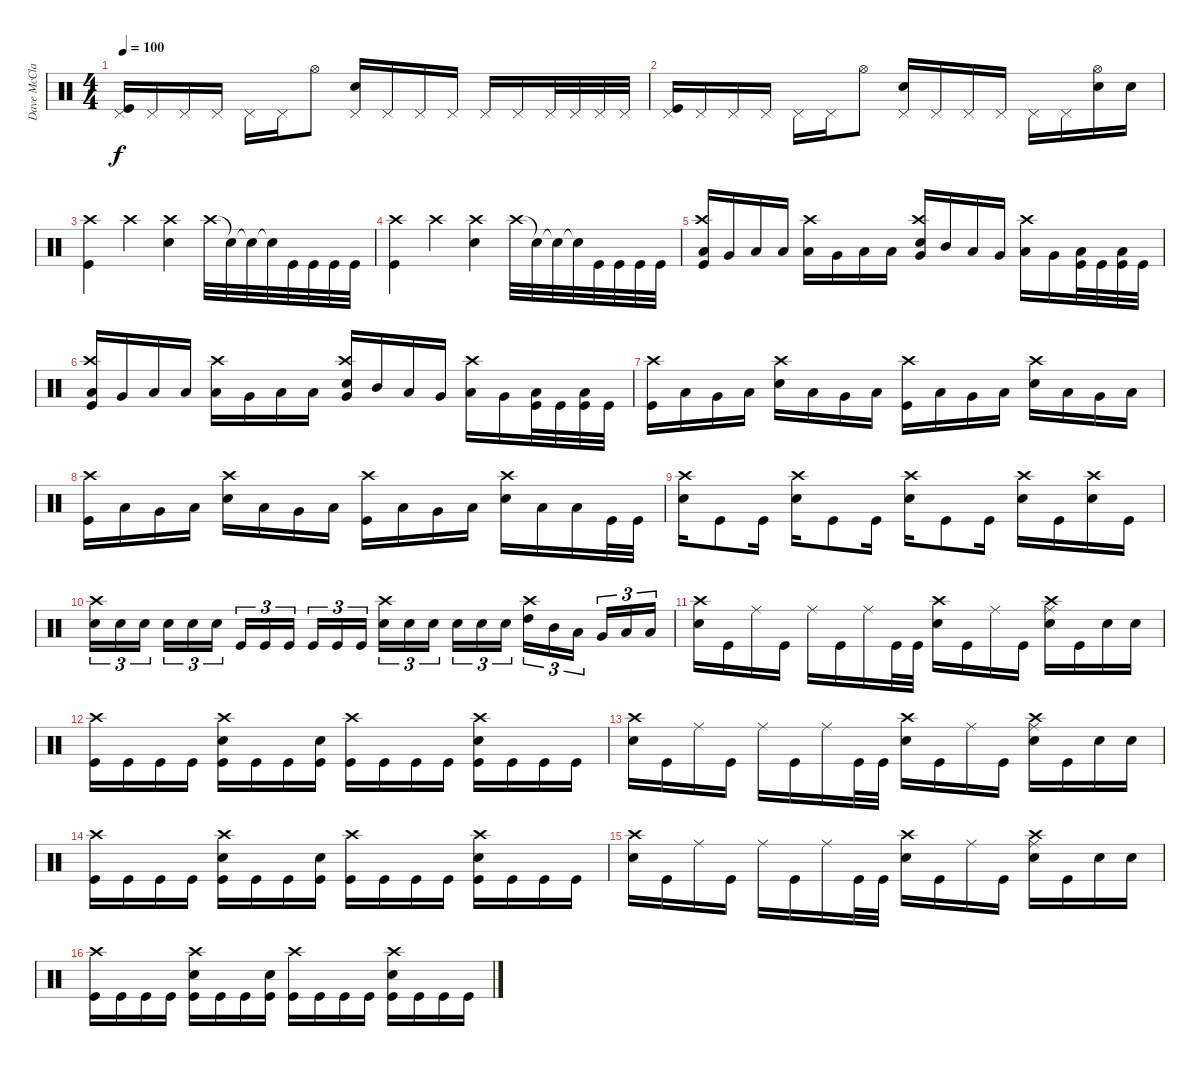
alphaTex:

\track ("Dave McClain" "Dave McCla") {instrument percussion}
\staff {score}
\articulation defaults
\ts (4 4)
\tempo 100
\clef neutral
\ks c
("Pedal Hi-Hat (hit)" "Kick (hit)").16{dy f} "Pedal Hi-Hat (hit)".16 "Pedal Hi-Hat (hit)".16 "Pedal Hi-Hat (hit)".16 "Pedal Hi-Hat (hit)".16 "Pedal Hi-Hat (hit)".16 "Hi-Hat (open)".8 ("Pedal Hi-Hat (hit)" "Snare (hit) 2").16 "Pedal Hi-Hat (hit)".16 "Pedal Hi-Hat (hit)".16 "Pedal Hi-Hat (hit)".16 "Pedal Hi-Hat (hit)".16 "Pedal Hi-Hat (hit)".16 "Pedal Hi-Hat (hit)".32 "Pedal Hi-Hat (hit)".32 "Pedal Hi-Hat (hit)".32 "Pedal Hi-Hat (hit)".32 |
("Pedal Hi-Hat (hit)" "Kick (hit)").16 "Pedal Hi-Hat (hit)".16 "Pedal Hi-Hat (hit)".16 "Pedal Hi-Hat (hit)".16 "Pedal Hi-Hat (hit)".16 "Pedal Hi-Hat (hit)".16 "Hi-Hat (open)".8 ("Pedal Hi-Hat (hit)" "Snare (hit) 2").16 "Pedal Hi-Hat (hit)".16 "Pedal Hi-Hat (hit)".16 "Pedal Hi-Hat (hit)".16 "Pedal Hi-Hat (hit)".16 "Pedal Hi-Hat (hit)".16 ("Hi-Hat (open)" "Snare (hit) 2").16 "Snare (hit) 2".16 |
("Crash high (hit)" "Kick (hit)").4 "Crash high (hit)".4 ("Crash high (hit)" "Snare (hit) 2").4 "Crash high (hit)".32 "Snare (hit)"{t}.32 "Snare (hit)"{t}.32 "Snare (hit)"{t}.32 "Kick (hit)".32 "Kick (hit)".32 "Kick (hit)".32 "Kick (hit)".32 |
("Crash high (hit)" "Kick (hit)").4 "Crash high (hit)".4 ("Crash high (hit)" "Snare (hit) 2").4 "Crash high (hit)".32 "Snare (hit)"{t}.32 "Snare (hit)"{t}.32 "Snare (hit)"{t}.32 "Kick (hit)".32 "Kick (hit)".32 "Kick (hit)".32 "Kick (hit)".32 |
("Crash high (hit)" "Low Floor Tom (hit)" "Kick (hit)").16 "Very Low Tom (hit)".16 "Low Floor Tom (hit)".16 "Low Floor Tom (hit)".16 ("Crash high (hit)" "Low Tom (hit)").16 "Very Low Tom (hit)".16 "Low Floor Tom (hit)".16 "Low Floor Tom (hit)".16 ("Crash high (hit)" "Very Low Tom (hit)" "Snare (hit) 2").16 "Mid Tom (hit)".16 "Low Tom (hit)".16 "Very Low Tom (hit)".16 ("Crash high (hit)" "Low Floor Tom (hit)").16 "Very Low Tom (hit)".16 ("Low Tom (hit)" "Kick (hit)").32 "Kick (hit)".32 ("Low Floor Tom (hit)" "Kick (hit)").32 "Kick (hit)".32 |
("Crash high (hit)" "Low Floor Tom (hit)" "Kick (hit)").16 "Very Low Tom (hit)".16 "Low Floor Tom (hit)".16 "Low Floor Tom (hit)".16 ("Crash high (hit)" "Low Tom (hit)").16 "Very Low Tom (hit)".16 "Low Floor Tom (hit)".16 "Low Floor Tom (hit)".16 ("Crash high (hit)" "Very Low Tom (hit)" "Snare (hit) 2").16 "Mid Tom (hit)".16 "Low Tom (hit)".16 "Very Low Tom (hit)".16 ("Crash high (hit)" "Low Floor Tom (hit)").16 "Very Low Tom (hit)".16 ("Low Tom (hit)" "Kick (hit)").32 "Kick (hit)".32 ("Low Floor Tom (hit)" "Kick (hit)").32 "Kick (hit)".32 |
("Crash high (hit)" "Kick (hit)").16 "Low Tom (hit)".16 "Very Low Tom (hit)".16 "Low Floor Tom (hit)".16 ("Crash high (hit)" "Snare (hit) 2").16 "Low Tom (hit)".16 "Very Low Tom (hit)".16 "Low Floor Tom (hit)".16 ("Crash high (hit)" "Kick (hit)").16 "Low Tom (hit)".16 "Very Low Tom (hit)".16 "Low Floor Tom (hit)".16 ("Crash high (hit)" "Snare (hit) 2").16 "Low Tom (hit)".16 "Very Low Tom (hit)".16 "Low Floor Tom (hit)".16 |
("Crash high (hit)" "Kick (hit)").16 "Low Tom (hit)".16 "Very Low Tom (hit)".16 "Low Floor Tom (hit)".16 ("Crash high (hit)" "Snare (hit) 2").16 "Low Tom (hit)".16 "Very Low Tom (hit)".16 "Low Floor Tom (hit)".16 ("Crash high (hit)" "Kick (hit)").16 "Low Tom (hit)".16 "Very Low Tom (hit)".16 "Low Floor Tom (hit)".16 ("Crash high (hit)" "Snare (hit) 2").16 "Low Tom (hit)".16 "Low Floor Tom (hit)".16 "Kick (hit)".32 "Kick (hit)".32 |
("Crash high (hit)" "Snare (hit) 2").16 "Kick (hit)".8 "Kick (hit)".16 ("Crash high (hit)" "Snare (hit) 2").16 "Kick (hit)".8 "Kick (hit)".16 ("Crash high (hit)" "Snare (hit) 2").16 "Kick (hit)".8 "Kick (hit)".16 ("Crash high (hit)" "Snare (hit) 2").16 "Kick (hit)".16 ("Crash high (hit)" "Snare (hit) 2").16 "Kick (hit)".16 |
("Crash high (hit)" "Snare (hit) 2").16{tu (3 2)} "Snare (hit) 2".16{tu (3 2)} "Snare (hit) 2".16{tu (3 2) beam splitsecondary} "Snare (hit) 2".16{tu (3 2)} "Snare (hit) 2".16{tu (3 2)} "Snare (hit) 2".16{tu (3 2)} "Kick (hit)".16{tu (3 2)} "Kick (hit)".16{tu (3 2)} "Kick (hit)".16{tu (3 2) beam splitsecondary} "Kick (hit)".16{tu (3 2)} "Kick (hit)".16{tu (3 2)} "Kick (hit)".16{tu (3 2)} ("Crash high (hit)" "Snare (hit) 2").16{tu (3 2)} "Snare (hit) 2".16{tu (3 2)} "Snare (hit) 2".16{tu (3 2) beam splitsecondary} "Snare (hit) 2".16{tu (3 2)} "Snare (hit) 2".16{tu (3 2)} "Snare (hit) 2".16{tu (3 2)} ("Crash high (hit)" "High Tom (hit)").16{tu (3 2)} "Mid Tom (hit)".16{tu (3 2)} "Low Tom (hit)".16{tu (3 2) beam splitsecondary} "Very Low Tom (hit)".16{tu (3 2)} "Low Floor Tom (hit)".16{tu (3 2)} "Low Floor Tom (hit)".16{tu (3 2)} |
("Crash high (hit)" "Snare (hit) 2").16 "Kick (hit)".16 "Ride (middle)".16 "Kick (hit)".16 "Ride (middle)".16 "Kick (hit)".16 "Ride (middle)".16 "Kick (hit)".32 "Kick (hit)".32 ("Crash high (hit)" "Snare (hit) 2").16 "Kick (hit)".16 "Ride (middle)".16 "Kick (hit)".16 ("Crash high (hit)" "Ride (middle)" "Snare (hit) 2").16 "Kick (hit)".16 "Snare (hit) 2".16 "Snare (hit) 2".16 |
("Crash high (hit)" "Kick (hit)").16 "Kick (hit)".16 "Kick (hit)".16 "Kick (hit)".16 ("Crash high (hit)" "Snare (hit) 2" "Kick (hit)").16 "Kick (hit)".16 "Kick (hit)".16 ("Snare (hit) 2" "Kick (hit)").16 ("Crash high (hit)" "Kick (hit)").16 "Kick (hit)".16 "Kick (hit)".16 "Kick (hit)".16 ("Crash high (hit)" "Snare (hit) 2" "Kick (hit)").16 "Kick (hit)".16 "Kick (hit)".16 "Kick (hit)".16 |
("Crash high (hit)" "Snare (hit) 2").16 "Kick (hit)".16 "Ride (middle)".16 "Kick (hit)".16 "Ride (middle)".16 "Kick (hit)".16 "Ride (middle)".16 "Kick (hit)".32 "Kick (hit)".32 ("Crash high (hit)" "Snare (hit) 2").16 "Kick (hit)".16 "Ride (middle)".16 "Kick (hit)".16 ("Crash high (hit)" "Ride (middle)" "Snare (hit) 2").16 "Kick (hit)".16 "Snare (hit) 2".16 "Snare (hit) 2".16 |
("Crash high (hit)" "Kick (hit)").16 "Kick (hit)".16 "Kick (hit)".16 "Kick (hit)".16 ("Crash high (hit)" "Snare (hit) 2" "Kick (hit)").16 "Kick (hit)".16 "Kick (hit)".16 ("Snare (hit) 2" "Kick (hit)").16 ("Crash high (hit)" "Kick (hit)").16 "Kick (hit)".16 "Kick (hit)".16 "Kick (hit)".16 ("Crash high (hit)" "Snare (hit) 2" "Kick (hit)").16 "Kick (hit)".16 "Kick (hit)".16 "Kick (hit)".16 |
("Crash high (hit)" "Snare (hit) 2").16 "Kick (hit)".16 "Ride (middle)".16 "Kick (hit)".16 "Ride (middle)".16 "Kick (hit)".16 "Ride (middle)".16 "Kick (hit)".32 "Kick (hit)".32 ("Crash high (hit)" "Snare (hit) 2").16 "Kick (hit)".16 "Ride (middle)".16 "Kick (hit)".16 ("Crash high (hit)" "Ride (middle)" "Snare (hit) 2").16 "Kick (hit)".16 "Snare (hit) 2".16 "Snare (hit) 2".16 |
("Crash high (hit)" "Kick (hit)").16 "Kick (hit)".16 "Kick (hit)".16 "Kick (hit)".16 ("Crash high (hit)" "Snare (hit) 2" "Kick (hit)").16 "Kick (hit)".16 "Kick (hit)".16 ("Snare (hit) 2" "Kick (hit)").16 ("Crash high (hit)" "Kick (hit)").16 "Kick (hit)".16 "Kick (hit)".16 "Kick (hit)".16 ("Crash high (hit)" "Snare (hit) 2" "Kick (hit)").16 "Kick (hit)".16 "Kick (hit)".16 "Kick (hit)".16
